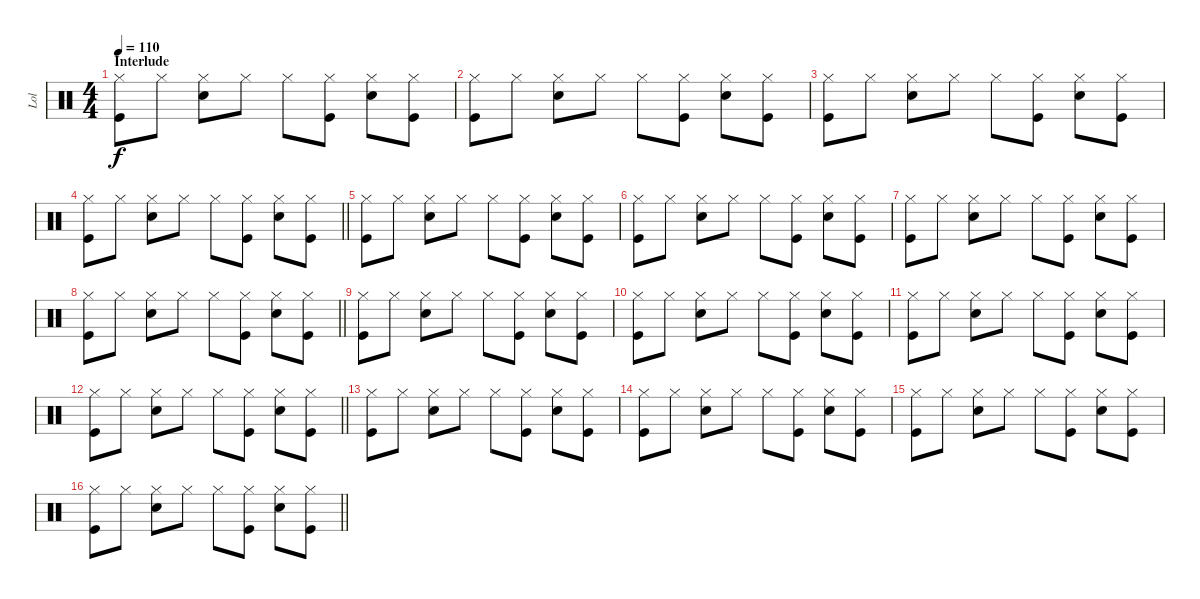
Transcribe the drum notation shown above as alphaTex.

\track ("Lol" "Lol") {instrument percussion}
\staff {score}
\articulation defaults
\ts (4 4)
\section ("" "Interlude")
\tempo 110
\clef neutral
\ks c
("Hi-Hat (closed)" "Kick (hit)").8{dy f} "Hi-Hat (closed)".8 ("Hi-Hat (closed)" "Electric Snare (hit)").8 "Hi-Hat (closed)".8 "Hi-Hat (closed)".8 ("Hi-Hat (closed)" "Kick (hit)").8 ("Hi-Hat (closed)" "Electric Snare (hit)").8 ("Hi-Hat (closed)" "Kick (hit)").8 |
("Hi-Hat (closed)" "Kick (hit)").8 "Hi-Hat (closed)".8 ("Hi-Hat (closed)" "Electric Snare (hit)").8 "Hi-Hat (closed)".8 "Hi-Hat (closed)".8 ("Hi-Hat (closed)" "Kick (hit)").8 ("Hi-Hat (closed)" "Electric Snare (hit)").8 ("Hi-Hat (closed)" "Kick (hit)").8 |
("Hi-Hat (closed)" "Kick (hit)").8 "Hi-Hat (closed)".8 ("Hi-Hat (closed)" "Electric Snare (hit)").8 "Hi-Hat (closed)".8 "Hi-Hat (closed)".8 ("Hi-Hat (closed)" "Kick (hit)").8 ("Hi-Hat (closed)" "Electric Snare (hit)").8 ("Hi-Hat (closed)" "Kick (hit)").8 |
\barLineRight lightlight
("Hi-Hat (closed)" "Kick (hit)").8 "Hi-Hat (closed)".8 ("Hi-Hat (closed)" "Electric Snare (hit)").8 "Hi-Hat (closed)".8 "Hi-Hat (closed)".8 ("Hi-Hat (closed)" "Kick (hit)").8 ("Hi-Hat (closed)" "Electric Snare (hit)").8 ("Hi-Hat (closed)" "Kick (hit)").8 |
("Hi-Hat (closed)" "Kick (hit)").8 "Hi-Hat (closed)".8 ("Hi-Hat (closed)" "Electric Snare (hit)").8 "Hi-Hat (closed)".8 "Hi-Hat (closed)".8 ("Hi-Hat (closed)" "Kick (hit)").8 ("Hi-Hat (closed)" "Electric Snare (hit)").8 ("Hi-Hat (closed)" "Kick (hit)").8 |
("Hi-Hat (closed)" "Kick (hit)").8 "Hi-Hat (closed)".8 ("Hi-Hat (closed)" "Electric Snare (hit)").8 "Hi-Hat (closed)".8 "Hi-Hat (closed)".8 ("Hi-Hat (closed)" "Kick (hit)").8 ("Hi-Hat (closed)" "Electric Snare (hit)").8 ("Hi-Hat (closed)" "Kick (hit)").8 |
("Hi-Hat (closed)" "Kick (hit)").8 "Hi-Hat (closed)".8 ("Hi-Hat (closed)" "Electric Snare (hit)").8 "Hi-Hat (closed)".8 "Hi-Hat (closed)".8 ("Hi-Hat (closed)" "Kick (hit)").8 ("Hi-Hat (closed)" "Electric Snare (hit)").8 ("Hi-Hat (closed)" "Kick (hit)").8 |
\barLineRight lightlight
("Hi-Hat (closed)" "Kick (hit)").8 "Hi-Hat (closed)".8 ("Hi-Hat (closed)" "Electric Snare (hit)").8 "Hi-Hat (closed)".8 "Hi-Hat (closed)".8 ("Hi-Hat (closed)" "Kick (hit)").8 ("Hi-Hat (closed)" "Electric Snare (hit)").8 ("Hi-Hat (closed)" "Kick (hit)").8 |
("Hi-Hat (closed)" "Kick (hit)").8 "Hi-Hat (closed)".8 ("Hi-Hat (closed)" "Electric Snare (hit)").8 "Hi-Hat (closed)".8 "Hi-Hat (closed)".8 ("Hi-Hat (closed)" "Kick (hit)").8 ("Hi-Hat (closed)" "Electric Snare (hit)").8 ("Hi-Hat (closed)" "Kick (hit)").8 |
("Hi-Hat (closed)" "Kick (hit)").8 "Hi-Hat (closed)".8 ("Hi-Hat (closed)" "Electric Snare (hit)").8 "Hi-Hat (closed)".8 "Hi-Hat (closed)".8 ("Hi-Hat (closed)" "Kick (hit)").8 ("Hi-Hat (closed)" "Electric Snare (hit)").8 ("Hi-Hat (closed)" "Kick (hit)").8 |
("Hi-Hat (closed)" "Kick (hit)").8 "Hi-Hat (closed)".8 ("Hi-Hat (closed)" "Electric Snare (hit)").8 "Hi-Hat (closed)".8 "Hi-Hat (closed)".8 ("Hi-Hat (closed)" "Kick (hit)").8 ("Hi-Hat (closed)" "Electric Snare (hit)").8 ("Hi-Hat (closed)" "Kick (hit)").8 |
\barLineRight lightlight
("Hi-Hat (closed)" "Kick (hit)").8 "Hi-Hat (closed)".8 ("Hi-Hat (closed)" "Electric Snare (hit)").8 "Hi-Hat (closed)".8 "Hi-Hat (closed)".8 ("Hi-Hat (closed)" "Kick (hit)").8 ("Hi-Hat (closed)" "Electric Snare (hit)").8 ("Hi-Hat (closed)" "Kick (hit)").8 |
("Hi-Hat (closed)" "Kick (hit)").8 "Hi-Hat (closed)".8 ("Hi-Hat (closed)" "Electric Snare (hit)").8 "Hi-Hat (closed)".8 "Hi-Hat (closed)".8 ("Hi-Hat (closed)" "Kick (hit)").8 ("Hi-Hat (closed)" "Electric Snare (hit)").8 ("Hi-Hat (closed)" "Kick (hit)").8 |
("Hi-Hat (closed)" "Kick (hit)").8 "Hi-Hat (closed)".8 ("Hi-Hat (closed)" "Electric Snare (hit)").8 "Hi-Hat (closed)".8 "Hi-Hat (closed)".8 ("Hi-Hat (closed)" "Kick (hit)").8 ("Hi-Hat (closed)" "Electric Snare (hit)").8 ("Hi-Hat (closed)" "Kick (hit)").8 |
("Hi-Hat (closed)" "Kick (hit)").8 "Hi-Hat (closed)".8 ("Hi-Hat (closed)" "Electric Snare (hit)").8 "Hi-Hat (closed)".8 "Hi-Hat (closed)".8 ("Hi-Hat (closed)" "Kick (hit)").8 ("Hi-Hat (closed)" "Electric Snare (hit)").8 ("Hi-Hat (closed)" "Kick (hit)").8 |
\barLineRight lightlight
("Hi-Hat (closed)" "Kick (hit)").8 "Hi-Hat (closed)".8 ("Hi-Hat (closed)" "Electric Snare (hit)").8 "Hi-Hat (closed)".8 "Hi-Hat (closed)".8 ("Hi-Hat (closed)" "Kick (hit)").8 ("Hi-Hat (closed)" "Electric Snare (hit)").8 ("Hi-Hat (closed)" "Kick (hit)").8
